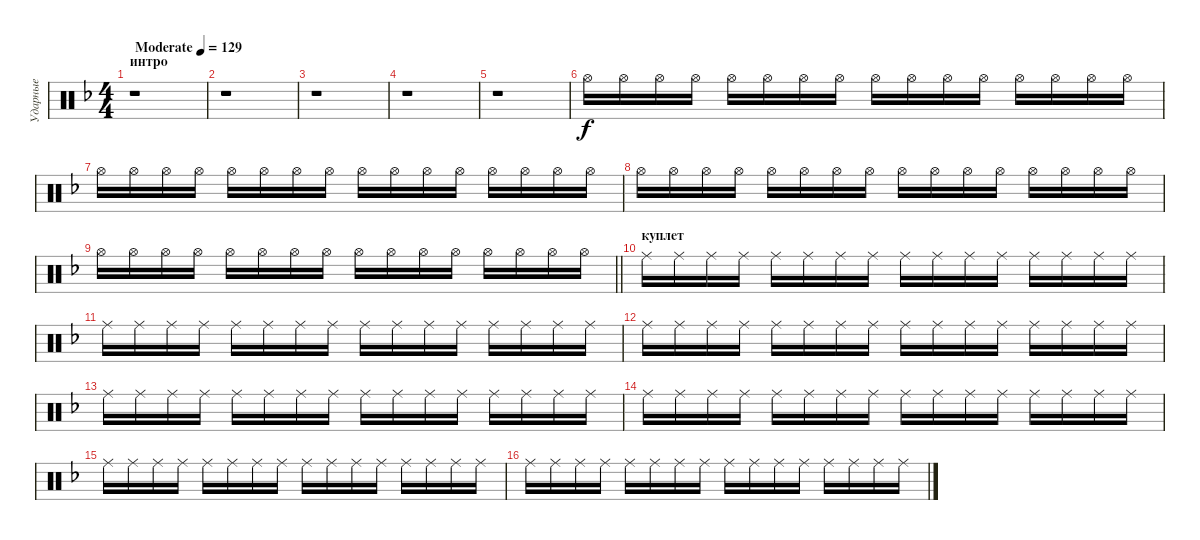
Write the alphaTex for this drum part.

\track ("Ударные" "Ударные") {instrument percussion}
\staff {score}
\articulation defaults
\ts (4 4)
\section ("" "интро")
\tempo (129 "Moderate")
\clef neutral
\ks dminor
r.1{dy f} |
r.1 |
r.1 |
r.1 |
r.1 |
"Hi-Hat (open)".16 "Hi-Hat (open)".16 "Hi-Hat (open)".16 "Hi-Hat (open)".16 "Hi-Hat (open)".16 "Hi-Hat (open)".16 "Hi-Hat (open)".16 "Hi-Hat (open)".16 "Hi-Hat (open)".16 "Hi-Hat (open)".16 "Hi-Hat (open)".16 "Hi-Hat (open)".16 "Hi-Hat (open)".16 "Hi-Hat (open)".16 "Hi-Hat (open)".16 "Hi-Hat (open)".16 |
"Hi-Hat (open)".16 "Hi-Hat (open)".16 "Hi-Hat (open)".16 "Hi-Hat (open)".16 "Hi-Hat (open)".16 "Hi-Hat (open)".16 "Hi-Hat (open)".16 "Hi-Hat (open)".16 "Hi-Hat (open)".16 "Hi-Hat (open)".16 "Hi-Hat (open)".16 "Hi-Hat (open)".16 "Hi-Hat (open)".16 "Hi-Hat (open)".16 "Hi-Hat (open)".16 "Hi-Hat (open)".16 |
"Hi-Hat (open)".16 "Hi-Hat (open)".16 "Hi-Hat (open)".16 "Hi-Hat (open)".16 "Hi-Hat (open)".16 "Hi-Hat (open)".16 "Hi-Hat (open)".16 "Hi-Hat (open)".16 "Hi-Hat (open)".16 "Hi-Hat (open)".16 "Hi-Hat (open)".16 "Hi-Hat (open)".16 "Hi-Hat (open)".16 "Hi-Hat (open)".16 "Hi-Hat (open)".16 "Hi-Hat (open)".16 |
\barLineRight lightlight "Hi-Hat (open)".16 "Hi-Hat (open)".16 "Hi-Hat (open)".16 "Hi-Hat (open)".16 "Hi-Hat (open)".16 "Hi-Hat (open)".16 "Hi-Hat (open)".16 "Hi-Hat (open)".16 "Hi-Hat (open)".16 "Hi-Hat (open)".16 "Hi-Hat (open)".16 "Hi-Hat (open)".16 "Hi-Hat (open)".16 "Hi-Hat (open)".16 "Hi-Hat (open)".16 "Hi-Hat (open)".16
|
\section ("" "куплет")
"Ride (middle)".16 "Ride (middle)".16 "Ride (middle)".16 "Ride (middle)".16 "Ride (middle)".16 "Ride (middle)".16 "Ride (middle)".16 "Ride (middle)".16 "Ride (middle)".16 "Ride (middle)".16 "Ride (middle)".16 "Ride (middle)".16 "Ride (middle)".16 "Ride (middle)".16 "Ride (middle)".16 "Ride (middle)".16 |
"Ride (middle)".16 "Ride (middle)".16 "Ride (middle)".16 "Ride (middle)".16 "Ride (middle)".16 "Ride (middle)".16 "Ride (middle)".16 "Ride (middle)".16 "Ride (middle)".16 "Ride (middle)".16 "Ride (middle)".16 "Ride (middle)".16 "Ride (middle)".16 "Ride (middle)".16 "Ride (middle)".16 "Ride (middle)".16 |
"Ride (middle)".16 "Ride (middle)".16 "Ride (middle)".16 "Ride (middle)".16 "Ride (middle)".16 "Ride (middle)".16 "Ride (middle)".16 "Ride (middle)".16 "Ride (middle)".16 "Ride (middle)".16 "Ride (middle)".16 "Ride (middle)".16 "Ride (middle)".16 "Ride (middle)".16 "Ride (middle)".16 "Ride (middle)".16 |
"Ride (middle)".16 "Ride (middle)".16 "Ride (middle)".16 "Ride (middle)".16 "Ride (middle)".16 "Ride (middle)".16 "Ride (middle)".16 "Ride (middle)".16 "Ride (middle)".16 "Ride (middle)".16 "Ride (middle)".16 "Ride (middle)".16 "Ride (middle)".16 "Ride (middle)".16 "Ride (middle)".16 "Ride (middle)".16 |
"Ride (middle)".16 "Ride (middle)".16 "Ride (middle)".16 "Ride (middle)".16 "Ride (middle)".16 "Ride (middle)".16 "Ride (middle)".16 "Ride (middle)".16 "Ride (middle)".16 "Ride (middle)".16 "Ride (middle)".16 "Ride (middle)".16 "Ride (middle)".16 "Ride (middle)".16 "Ride (middle)".16 "Ride (middle)".16 |
"Ride (middle)".16 "Ride (middle)".16 "Ride (middle)".16 "Ride (middle)".16 "Ride (middle)".16 "Ride (middle)".16 "Ride (middle)".16 "Ride (middle)".16 "Ride (middle)".16 "Ride (middle)".16 "Ride (middle)".16 "Ride (middle)".16 "Ride (middle)".16 "Ride (middle)".16 "Ride (middle)".16 "Ride (middle)".16 |
"Ride (middle)".16 "Ride (middle)".16 "Ride (middle)".16 "Ride (middle)".16 "Ride (middle)".16 "Ride (middle)".16 "Ride (middle)".16 "Ride (middle)".16 "Ride (middle)".16 "Ride (middle)".16 "Ride (middle)".16 "Ride (middle)".16 "Ride (middle)".16 "Ride (middle)".16 "Ride (middle)".16 "Ride (middle)".16
